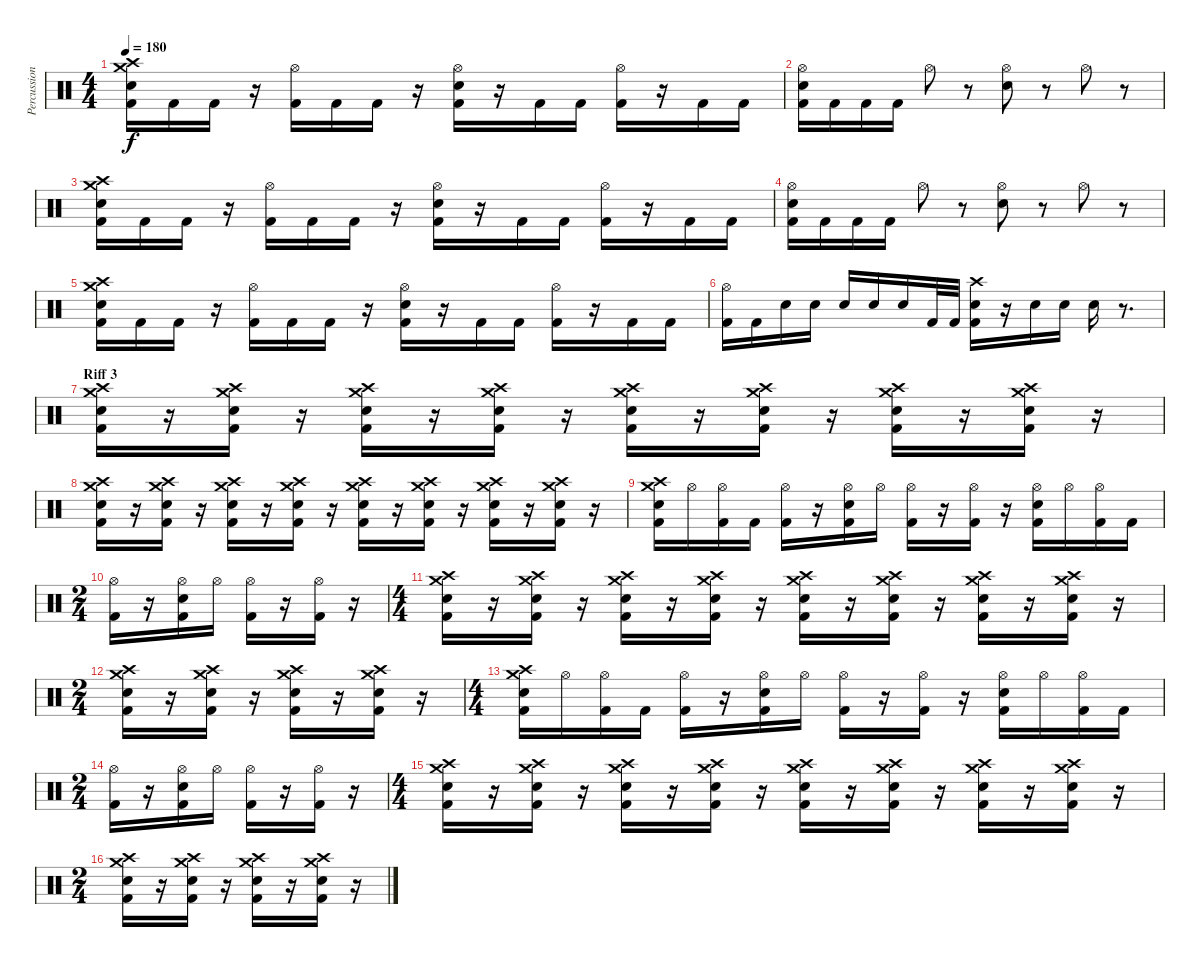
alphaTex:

\track ("Percussion" "Percussion") {instrument percussion}
\staff {score}
\articulation defaults
\ts (4 4)
\tempo 180
\clef neutral
\ks c
("Crash medium (hit)" "Crash high (hit)" "Electric Snare (hit)" "Kick (hit) 2").16{dy f} "Kick (hit) 2".16 "Kick (hit) 2".16 r.16 ("Hi-Hat (open)" "Kick (hit) 2").16 "Kick (hit) 2".16 "Kick (hit) 2".16 r.16 ("Hi-Hat (open)" "Electric Snare (hit)" "Kick (hit) 2").16 r.16 "Kick (hit) 2".16 "Kick (hit) 2".16 ("Hi-Hat (open)" "Kick (hit) 2").16 r.16 "Kick (hit) 2".16 "Kick (hit) 2".16 |
("Hi-Hat (open)" "Electric Snare (hit)" "Kick (hit) 2").16 "Kick (hit) 2".16 "Kick (hit) 2".16 "Kick (hit) 2".16 "Hi-Hat (open)".8 r.8 ("Hi-Hat (open)" "Electric Snare (hit)").8 r.8 "Hi-Hat (open)".8 r.8 |
("Crash medium (hit)" "Crash high (hit)" "Electric Snare (hit)" "Kick (hit) 2").16 "Kick (hit) 2".16 "Kick (hit) 2".16 r.16 ("Hi-Hat (open)" "Kick (hit) 2").16 "Kick (hit) 2".16 "Kick (hit) 2".16 r.16 ("Hi-Hat (open)" "Electric Snare (hit)" "Kick (hit) 2").16 r.16 "Kick (hit) 2".16 "Kick (hit) 2".16 ("Hi-Hat (open)" "Kick (hit) 2").16 r.16 "Kick (hit) 2".16 "Kick (hit) 2".16 |
("Hi-Hat (open)" "Electric Snare (hit)" "Kick (hit) 2").16 "Kick (hit) 2".16 "Kick (hit) 2".16 "Kick (hit) 2".16 "Hi-Hat (open)".8 r.8 ("Hi-Hat (open)" "Electric Snare (hit)").8 r.8 "Hi-Hat (open)".8 r.8 |
("Crash medium (hit)" "Crash high (hit)" "Electric Snare (hit)" "Kick (hit) 2").16 "Kick (hit) 2".16 "Kick (hit) 2".16 r.16 ("Hi-Hat (open)" "Kick (hit) 2").16 "Kick (hit) 2".16 "Kick (hit) 2".16 r.16 ("Hi-Hat (open)" "Electric Snare (hit)" "Kick (hit) 2").16 r.16 "Kick (hit) 2".16 "Kick (hit) 2".16 ("Hi-Hat (open)" "Kick (hit) 2").16 r.16 "Kick (hit) 2".16 "Kick (hit) 2".16 |
("Hi-Hat (open)" "Kick (hit) 2").16 "Kick (hit) 2".16 "Electric Snare (hit)".16 "Electric Snare (hit)".16 "Electric Snare (hit)".16 "Electric Snare (hit)".16 "Electric Snare (hit)".16 "Kick (hit) 2".32 "Kick (hit) 2".32 ("Crash high (hit)" "Electric Snare (hit)" "Kick (hit) 2").16 r.16 "Electric Snare (hit)".16 "Electric Snare (hit)".16 "Electric Snare (hit)".16 r.8{d} |
\section ("" "Riff 3")
("Crash medium (hit)" "Crash high (hit)" "Electric Snare (hit)" "Kick (hit) 2").16 r.16 ("Crash medium (hit)" "Crash high (hit)" "Electric Snare (hit)" "Kick (hit) 2").16 r.16 ("Crash medium (hit)" "Crash high (hit)" "Electric Snare (hit)" "Kick (hit) 2").16 r.16 ("Crash medium (hit)" "Crash high (hit)" "Electric Snare (hit)" "Kick (hit) 2").16 r.16 ("Crash medium (hit)" "Crash high (hit)" "Electric Snare (hit)" "Kick (hit) 2").16 r.16 ("Crash medium (hit)" "Crash high (hit)" "Electric Snare (hit)" "Kick (hit) 2").16 r.16 ("Crash medium (hit)" "Crash high (hit)" "Electric Snare (hit)" "Kick (hit) 2").16 r.16 ("Crash medium (hit)" "Crash high (hit)" "Electric Snare (hit)" "Kick (hit) 2").16 r.16 |
("Crash medium (hit)" "Crash high (hit)" "Electric Snare (hit)" "Kick (hit) 2").16 r.16 ("Crash medium (hit)" "Crash high (hit)" "Electric Snare (hit)" "Kick (hit) 2").16 r.16 ("Crash medium (hit)" "Crash high (hit)" "Electric Snare (hit)" "Kick (hit) 2").16 r.16 ("Crash medium (hit)" "Crash high (hit)" "Electric Snare (hit)" "Kick (hit) 2").16 r.16 ("Crash medium (hit)" "Crash high (hit)" "Electric Snare (hit)" "Kick (hit) 2").16 r.16 ("Crash medium (hit)" "Crash high (hit)" "Electric Snare (hit)" "Kick (hit) 2").16 r.16 ("Crash medium (hit)" "Crash high (hit)" "Electric Snare (hit)" "Kick (hit) 2").16 r.16 ("Crash medium (hit)" "Crash high (hit)" "Electric Snare (hit)" "Kick (hit) 2").16 r.16 |
("Crash medium (hit)" "Crash high (hit)" "Electric Snare (hit)" "Kick (hit) 2").16 "Hi-Hat (open)".16 ("Hi-Hat (open)" "Kick (hit) 2").16 "Kick (hit) 2".16 ("Hi-Hat (open)" "Kick (hit) 2").16 r.16 ("Hi-Hat (open)" "Electric Snare (hit)" "Kick (hit) 2").16 "Hi-Hat (open)".16 ("Hi-Hat (open)" "Kick (hit) 2").16 r.16 ("Hi-Hat (open)" "Kick (hit) 2").16 r.16 ("Hi-Hat (open)" "Electric Snare (hit)" "Kick (hit) 2").16 "Hi-Hat (open)".16 ("Hi-Hat (open)" "Kick (hit) 2").16 "Kick (hit) 2".16 |
\ts (2 4)
("Hi-Hat (open)" "Kick (hit) 2").16 r.16 ("Hi-Hat (open)" "Electric Snare (hit)" "Kick (hit) 2").16 "Hi-Hat (open)".16 ("Hi-Hat (open)" "Kick (hit) 2").16 r.16 ("Hi-Hat (open)" "Kick (hit) 2").16 r.16 |
\ts (4 4)
("Crash medium (hit)" "Crash high (hit)" "Electric Snare (hit)" "Kick (hit) 2").16 r.16 ("Crash medium (hit)" "Crash high (hit)" "Electric Snare (hit)" "Kick (hit) 2").16 r.16 ("Crash medium (hit)" "Crash high (hit)" "Electric Snare (hit)" "Kick (hit) 2").16 r.16 ("Crash medium (hit)" "Crash high (hit)" "Electric Snare (hit)" "Kick (hit) 2").16 r.16 ("Crash medium (hit)" "Crash high (hit)" "Electric Snare (hit)" "Kick (hit) 2").16 r.16 ("Crash medium (hit)" "Crash high (hit)" "Electric Snare (hit)" "Kick (hit) 2").16 r.16 ("Crash medium (hit)" "Crash high (hit)" "Electric Snare (hit)" "Kick (hit) 2").16 r.16 ("Crash medium (hit)" "Crash high (hit)" "Electric Snare (hit)" "Kick (hit) 2").16 r.16 |
\ts (2 4)
("Crash medium (hit)" "Crash high (hit)" "Electric Snare (hit)" "Kick (hit) 2").16 r.16 ("Crash medium (hit)" "Crash high (hit)" "Electric Snare (hit)" "Kick (hit) 2").16 r.16 ("Crash medium (hit)" "Crash high (hit)" "Electric Snare (hit)" "Kick (hit) 2").16 r.16 ("Crash medium (hit)" "Crash high (hit)" "Electric Snare (hit)" "Kick (hit) 2").16 r.16 |
\ts (4 4)
("Crash medium (hit)" "Crash high (hit)" "Electric Snare (hit)" "Kick (hit) 2").16 "Hi-Hat (open)".16 ("Hi-Hat (open)" "Kick (hit) 2").16 "Kick (hit) 2".16 ("Hi-Hat (open)" "Kick (hit) 2").16 r.16 ("Hi-Hat (open)" "Electric Snare (hit)" "Kick (hit) 2").16 "Hi-Hat (open)".16 ("Hi-Hat (open)" "Kick (hit) 2").16 r.16 ("Hi-Hat (open)" "Kick (hit) 2").16 r.16 ("Hi-Hat (open)" "Electric Snare (hit)" "Kick (hit) 2").16 "Hi-Hat (open)".16 ("Hi-Hat (open)" "Kick (hit) 2").16 "Kick (hit) 2".16 |
\ts (2 4)
("Hi-Hat (open)" "Kick (hit) 2").16 r.16 ("Hi-Hat (open)" "Electric Snare (hit)" "Kick (hit) 2").16 "Hi-Hat (open)".16 ("Hi-Hat (open)" "Kick (hit) 2").16 r.16 ("Hi-Hat (open)" "Kick (hit) 2").16 r.16 |
\ts (4 4)
("Crash medium (hit)" "Crash high (hit)" "Electric Snare (hit)" "Kick (hit) 2").16 r.16 ("Crash medium (hit)" "Crash high (hit)" "Electric Snare (hit)" "Kick (hit) 2").16 r.16 ("Crash medium (hit)" "Crash high (hit)" "Electric Snare (hit)" "Kick (hit) 2").16 r.16 ("Crash medium (hit)" "Crash high (hit)" "Electric Snare (hit)" "Kick (hit) 2").16 r.16 ("Crash medium (hit)" "Crash high (hit)" "Electric Snare (hit)" "Kick (hit) 2").16 r.16 ("Crash medium (hit)" "Crash high (hit)" "Electric Snare (hit)" "Kick (hit) 2").16 r.16 ("Crash medium (hit)" "Crash high (hit)" "Electric Snare (hit)" "Kick (hit) 2").16 r.16 ("Crash medium (hit)" "Crash high (hit)" "Electric Snare (hit)" "Kick (hit) 2").16 r.16 |
\ts (2 4)
("Crash medium (hit)" "Crash high (hit)" "Electric Snare (hit)" "Kick (hit) 2").16 r.16 ("Crash medium (hit)" "Crash high (hit)" "Electric Snare (hit)" "Kick (hit) 2").16 r.16 ("Crash medium (hit)" "Crash high (hit)" "Electric Snare (hit)" "Kick (hit) 2").16 r.16 ("Crash medium (hit)" "Crash high (hit)" "Electric Snare (hit)" "Kick (hit) 2").16 r.16
